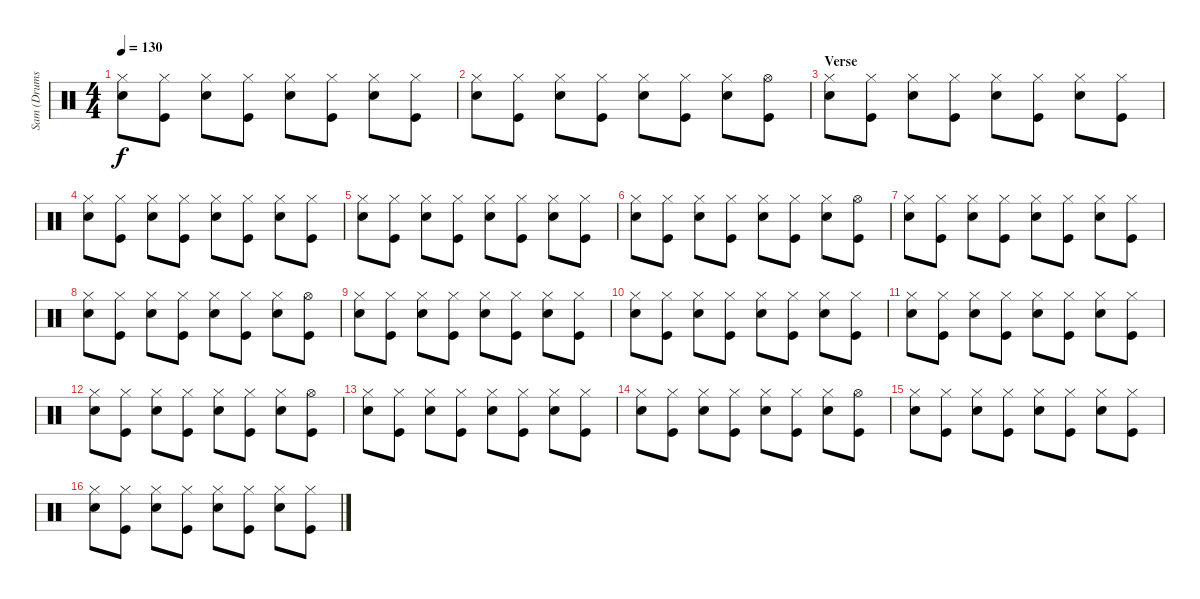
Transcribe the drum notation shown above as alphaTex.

\track ("Sam (Drums)" "Sam (Drums") {instrument percussion}
\staff {score}
\articulation defaults
\ts (4 4)
\tempo 130
\clef neutral
\ks c
("Hi-Hat (closed)" "Snare (hit) 2").8{dy f} ("Hi-Hat (closed)" "Kick (hit)").8 ("Hi-Hat (closed)" "Snare (hit) 2").8 ("Hi-Hat (closed)" "Kick (hit)").8 ("Hi-Hat (closed)" "Snare (hit) 2").8 ("Hi-Hat (closed)" "Kick (hit)").8 ("Hi-Hat (closed)" "Snare (hit) 2").8 ("Hi-Hat (closed)" "Kick (hit)").8 |
("Hi-Hat (closed)" "Snare (hit) 2").8 ("Hi-Hat (closed)" "Kick (hit)").8 ("Hi-Hat (closed)" "Snare (hit) 2").8 ("Hi-Hat (closed)" "Kick (hit)").8 ("Hi-Hat (closed)" "Snare (hit) 2").8 ("Hi-Hat (closed)" "Kick (hit)").8 ("Hi-Hat (closed)" "Snare (hit) 2").8 ("Hi-Hat (open)" "Kick (hit)").8 |
\section ("" "Verse")
("Hi-Hat (closed)" "Snare (hit) 2").8 ("Hi-Hat (closed)" "Kick (hit)").8 ("Hi-Hat (closed)" "Snare (hit) 2").8 ("Hi-Hat (closed)" "Kick (hit)").8 ("Hi-Hat (closed)" "Snare (hit) 2").8 ("Hi-Hat (closed)" "Kick (hit)").8 ("Hi-Hat (closed)" "Snare (hit) 2").8 ("Hi-Hat (closed)" "Kick (hit)").8 |
("Hi-Hat (closed)" "Snare (hit) 2").8 ("Hi-Hat (closed)" "Kick (hit)").8 ("Hi-Hat (closed)" "Snare (hit) 2").8 ("Hi-Hat (closed)" "Kick (hit)").8 ("Hi-Hat (closed)" "Snare (hit) 2").8 ("Hi-Hat (closed)" "Kick (hit)").8 ("Hi-Hat (closed)" "Snare (hit) 2").8 ("Hi-Hat (closed)" "Kick (hit)").8 |
("Hi-Hat (closed)" "Snare (hit) 2").8 ("Hi-Hat (closed)" "Kick (hit)").8 ("Hi-Hat (closed)" "Snare (hit) 2").8 ("Hi-Hat (closed)" "Kick (hit)").8 ("Hi-Hat (closed)" "Snare (hit) 2").8 ("Hi-Hat (closed)" "Kick (hit)").8 ("Hi-Hat (closed)" "Snare (hit) 2").8 ("Hi-Hat (closed)" "Kick (hit)").8 |
("Hi-Hat (closed)" "Snare (hit) 2").8 ("Hi-Hat (closed)" "Kick (hit)").8 ("Hi-Hat (closed)" "Snare (hit) 2").8 ("Hi-Hat (closed)" "Kick (hit)").8 ("Hi-Hat (closed)" "Snare (hit) 2").8 ("Hi-Hat (closed)" "Kick (hit)").8 ("Hi-Hat (closed)" "Snare (hit) 2").8 ("Hi-Hat (open)" "Kick (hit)").8 |
("Hi-Hat (closed)" "Snare (hit) 2").8 ("Hi-Hat (closed)" "Kick (hit)").8 ("Hi-Hat (closed)" "Snare (hit) 2").8 ("Hi-Hat (closed)" "Kick (hit)").8 ("Hi-Hat (closed)" "Snare (hit) 2").8 ("Hi-Hat (closed)" "Kick (hit)").8 ("Hi-Hat (closed)" "Snare (hit) 2").8 ("Hi-Hat (closed)" "Kick (hit)").8 |
("Hi-Hat (closed)" "Snare (hit) 2").8 ("Hi-Hat (closed)" "Kick (hit)").8 ("Hi-Hat (closed)" "Snare (hit) 2").8 ("Hi-Hat (closed)" "Kick (hit)").8 ("Hi-Hat (closed)" "Snare (hit) 2").8 ("Hi-Hat (closed)" "Kick (hit)").8 ("Hi-Hat (closed)" "Snare (hit) 2").8 ("Hi-Hat (open)" "Kick (hit)").8 |
("Hi-Hat (closed)" "Snare (hit) 2").8 ("Hi-Hat (closed)" "Kick (hit)").8 ("Hi-Hat (closed)" "Snare (hit) 2").8 ("Hi-Hat (closed)" "Kick (hit)").8 ("Hi-Hat (closed)" "Snare (hit) 2").8 ("Hi-Hat (closed)" "Kick (hit)").8 ("Hi-Hat (closed)" "Snare (hit) 2").8 ("Hi-Hat (closed)" "Kick (hit)").8 |
("Hi-Hat (closed)" "Snare (hit) 2").8 ("Hi-Hat (closed)" "Kick (hit)").8 ("Hi-Hat (closed)" "Snare (hit) 2").8 ("Hi-Hat (closed)" "Kick (hit)").8 ("Hi-Hat (closed)" "Snare (hit) 2").8 ("Hi-Hat (closed)" "Kick (hit)").8 ("Hi-Hat (closed)" "Snare (hit) 2").8 ("Hi-Hat (closed)" "Kick (hit)").8 |
("Hi-Hat (closed)" "Snare (hit) 2").8 ("Hi-Hat (closed)" "Kick (hit)").8 ("Hi-Hat (closed)" "Snare (hit) 2").8 ("Hi-Hat (closed)" "Kick (hit)").8 ("Hi-Hat (closed)" "Snare (hit) 2").8 ("Hi-Hat (closed)" "Kick (hit)").8 ("Hi-Hat (closed)" "Snare (hit) 2").8 ("Hi-Hat (closed)" "Kick (hit)").8 |
("Hi-Hat (closed)" "Snare (hit) 2").8 ("Hi-Hat (closed)" "Kick (hit)").8 ("Hi-Hat (closed)" "Snare (hit) 2").8 ("Hi-Hat (closed)" "Kick (hit)").8 ("Hi-Hat (closed)" "Snare (hit) 2").8 ("Hi-Hat (closed)" "Kick (hit)").8 ("Hi-Hat (closed)" "Snare (hit) 2").8 ("Hi-Hat (open)" "Kick (hit)").8 |
("Hi-Hat (closed)" "Snare (hit) 2").8 ("Hi-Hat (closed)" "Kick (hit)").8 ("Hi-Hat (closed)" "Snare (hit) 2").8 ("Hi-Hat (closed)" "Kick (hit)").8 ("Hi-Hat (closed)" "Snare (hit) 2").8 ("Hi-Hat (closed)" "Kick (hit)").8 ("Hi-Hat (closed)" "Snare (hit) 2").8 ("Hi-Hat (closed)" "Kick (hit)").8 |
("Hi-Hat (closed)" "Snare (hit) 2").8 ("Hi-Hat (closed)" "Kick (hit)").8 ("Hi-Hat (closed)" "Snare (hit) 2").8 ("Hi-Hat (closed)" "Kick (hit)").8 ("Hi-Hat (closed)" "Snare (hit) 2").8 ("Hi-Hat (closed)" "Kick (hit)").8 ("Hi-Hat (closed)" "Snare (hit) 2").8 ("Hi-Hat (open)" "Kick (hit)").8 |
("Hi-Hat (closed)" "Snare (hit) 2").8 ("Hi-Hat (closed)" "Kick (hit)").8 ("Hi-Hat (closed)" "Snare (hit) 2").8 ("Hi-Hat (closed)" "Kick (hit)").8 ("Hi-Hat (closed)" "Snare (hit) 2").8 ("Hi-Hat (closed)" "Kick (hit)").8 ("Hi-Hat (closed)" "Snare (hit) 2").8 ("Hi-Hat (closed)" "Kick (hit)").8 |
("Hi-Hat (closed)" "Snare (hit) 2").8 ("Hi-Hat (closed)" "Kick (hit)").8 ("Hi-Hat (closed)" "Snare (hit) 2").8 ("Hi-Hat (closed)" "Kick (hit)").8 ("Hi-Hat (closed)" "Snare (hit) 2").8 ("Hi-Hat (closed)" "Kick (hit)").8 ("Hi-Hat (closed)" "Snare (hit) 2").8 ("Hi-Hat (closed)" "Kick (hit)").8
